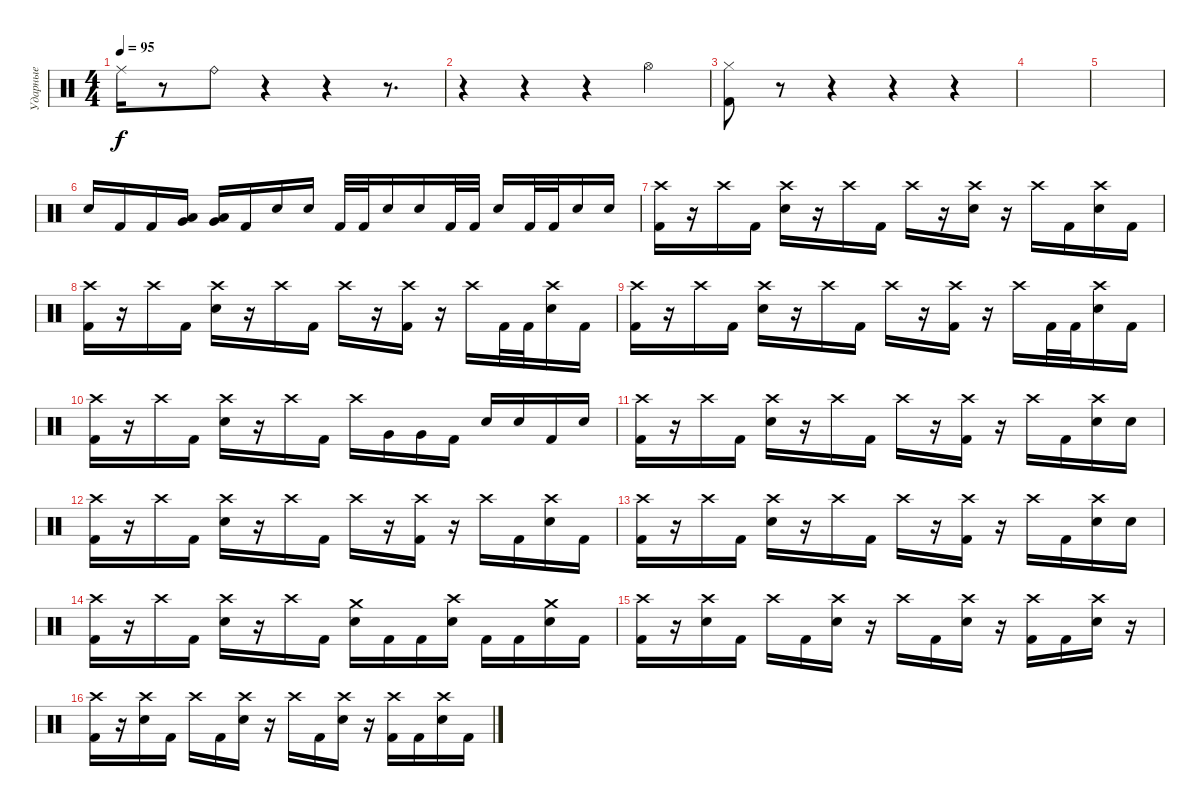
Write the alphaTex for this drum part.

\track ("Ударные" "Ударные") {instrument percussion}
\staff {score}
\articulation defaults
\ts (4 4)
\tempo 95
\clef neutral
\ks c "Ride (middle)".16{dy f}
r.8 "Ride (bell)".8 r.4 r.4 r.8{d} |
r.4 r.4 r.4 "Hi-Hat (open)".4 |
("Hi-Hat (closed)" "Kick (hit) 2").8 r.8 r.4 r.4 r.4 |
|
|
"Electric Snare (hit)".16 "Kick (hit) 2".16 "Kick (hit) 2".16 ("Low Floor Tom (hit)" "Very Low Tom (hit)").16 ("Low Floor Tom (hit)" "Very Low Tom (hit)").16 "Kick (hit) 2".16 "Electric Snare (hit)".16 "Electric Snare (hit)".16 "Kick (hit) 2".32 "Kick (hit) 2".32 "Electric Snare (hit)".16 "Electric Snare (hit)".16 "Kick (hit) 2".32 "Kick (hit) 2".32 "Electric Snare (hit)".16 "Kick (hit) 2".32 "Kick (hit) 2".32 "Electric Snare (hit)".16 "Electric Snare (hit)".16 |
("Crash high (hit)" "Kick (hit) 2").16 r.16 "Crash high (hit)".16 "Kick (hit) 2".16 ("Crash high (hit)" "Electric Snare (hit)").16 r.16 "Crash high (hit)".16 "Kick (hit) 2".16 "Crash high (hit)".16 r.16 ("Crash high (hit)" "Electric Snare (hit)").16 r.16 "Crash high (hit)".16 "Kick (hit) 2".16 ("Crash high (hit)" "Electric Snare (hit)").16 "Kick (hit) 2".16 |
("Crash high (hit)" "Kick (hit) 2").16 r.16 "Crash high (hit)".16 "Kick (hit) 2".16 ("Crash high (hit)" "Electric Snare (hit)").16 r.16 "Crash high (hit)".16 "Kick (hit) 2".16 "Crash high (hit)".16 r.16 ("Crash high (hit)" "Kick (hit) 2").16 r.16 "Crash high (hit)".16 "Kick (hit) 2".32 "Kick (hit) 2".32 ("Crash high (hit)" "Electric Snare (hit)").16 "Kick (hit) 2".16 |
("Crash high (hit)" "Kick (hit) 2").16 r.16 "Crash high (hit)".16 "Kick (hit) 2".16 ("Crash high (hit)" "Electric Snare (hit)").16 r.16 "Crash high (hit)".16 "Kick (hit) 2".16 "Crash high (hit)".16 r.16 ("Crash high (hit)" "Kick (hit) 2").16 r.16 "Crash high (hit)".16 "Kick (hit) 2".32 "Kick (hit) 2".32 ("Crash high (hit)" "Electric Snare (hit)").16 "Kick (hit) 2".16 |
("Crash high (hit)" "Kick (hit) 2").16 r.16 "Crash high (hit)".16 "Kick (hit) 2".16 ("Crash high (hit)" "Electric Snare (hit)").16 r.16 "Crash high (hit)".16 "Kick (hit) 2".16 "Crash high (hit)".16 "Very Low Tom (hit)".16 "Very Low Tom (hit)".16 "Kick (hit) 2".16 "Electric Snare (hit)".16 "Electric Snare (hit)".16 "Kick (hit) 2".16 "Electric Snare (hit)".16 |
("Crash high (hit)" "Kick (hit) 2").16 r.16 "Crash high (hit)".16 "Kick (hit) 2".16 ("Crash high (hit)" "Electric Snare (hit)").16 r.16 "Crash high (hit)".16 "Kick (hit) 2".16 "Crash high (hit)".16 r.16 ("Crash high (hit)" "Kick (hit) 2").16 r.16 "Crash high (hit)".16 "Kick (hit) 2".16 ("Crash high (hit)" "Electric Snare (hit)").16 "Electric Snare (hit)".16 |
("Crash high (hit)" "Kick (hit) 2").16 r.16 "Crash high (hit)".16 "Kick (hit) 2".16 ("Crash high (hit)" "Electric Snare (hit)").16 r.16 "Crash high (hit)".16 "Kick (hit) 2".16 "Crash high (hit)".16 r.16 ("Crash high (hit)" "Kick (hit) 2").16 r.16 "Crash high (hit)".16 "Kick (hit) 2".16 ("Crash high (hit)" "Electric Snare (hit)").16 "Kick (hit) 2".16 |
("Crash high (hit)" "Kick (hit) 2").16 r.16 "Crash high (hit)".16 "Kick (hit) 2".16 ("Crash high (hit)" "Electric Snare (hit)").16 r.16 "Crash high (hit)".16 "Kick (hit) 2".16 "Crash high (hit)".16 r.16 ("Crash high (hit)" "Kick (hit) 2").16 r.16 "Crash high (hit)".16 "Kick (hit) 2".16 ("Crash high (hit)" "Electric Snare (hit)").16 "Electric Snare (hit)".16 |
("Crash high (hit)" "Kick (hit) 2").16 r.16 "Crash high (hit)".16 "Kick (hit) 2".16 ("Crash high (hit)" "Electric Snare (hit)").16 r.16 "Crash high (hit)".16 "Kick (hit) 2".16 ("Crash medium (hit)" "Electric Snare (hit)").16 "Kick (hit) 2".16 "Kick (hit) 2".16 ("Crash high (hit)" "Electric Snare (hit)").16 "Kick (hit) 2".16 "Kick (hit) 2".16 ("Crash medium (hit)" "Electric Snare (hit)").16 "Kick (hit) 2".16 |
("Crash high (hit)" "Kick (hit) 2").16 r.16 ("Crash high (hit)" "Electric Snare (hit)").16 "Kick (hit) 2".16 "Crash high (hit)".16 "Kick (hit) 2".16 ("Crash high (hit)" "Electric Snare (hit)").16 r.16 "Crash high (hit)".16 "Kick (hit) 2".16 ("Crash high (hit)" "Electric Snare (hit)").16 r.16 ("Crash high (hit)" "Kick (hit) 2").16 "Kick (hit) 2".16 ("Crash high (hit)" "Electric Snare (hit)").16 r.16 |
("Crash high (hit)" "Kick (hit) 2").16 r.16 ("Crash high (hit)" "Electric Snare (hit)").16 "Kick (hit) 2".16 "Crash high (hit)".16 "Kick (hit) 2".16 ("Crash high (hit)" "Electric Snare (hit)").16 r.16 "Crash high (hit)".16 "Kick (hit) 2".16 ("Crash high (hit)" "Electric Snare (hit)").16 r.16 ("Crash high (hit)" "Kick (hit) 2").16 "Kick (hit) 2".16 ("Crash high (hit)" "Electric Snare (hit)").16 "Kick (hit) 2".16
